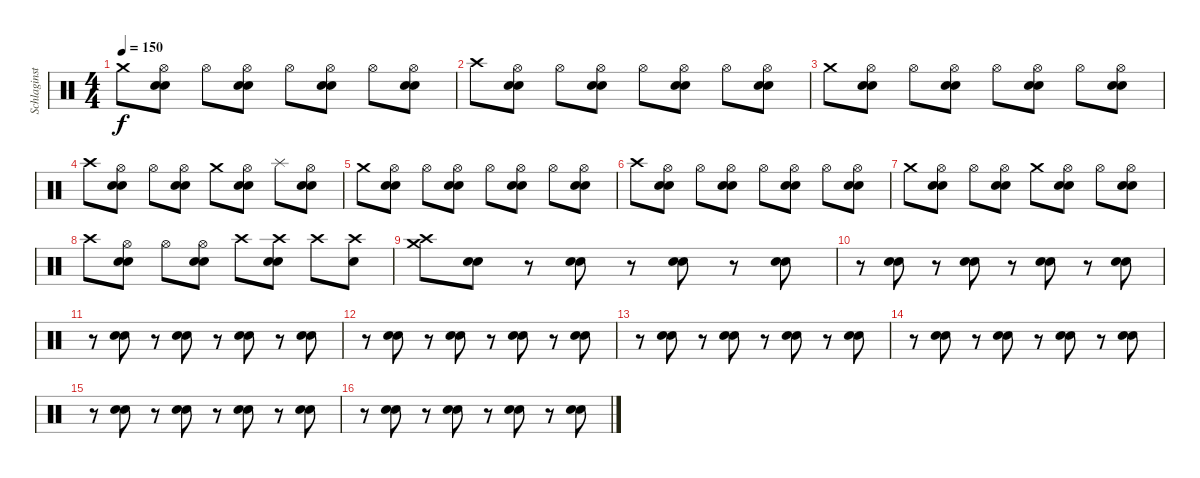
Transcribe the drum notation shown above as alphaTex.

\track ("Schlaginstrumente - Auswahl" "Schlaginst") {instrument percussion}
\staff {score}
\articulation defaults
\ts (4 4)
\tempo 150
\clef neutral
\ks c "Crash medium (hit)".8{dy f}
("Hi-Hat (open)" "Electric Snare (hit)" "Electric Snare (hit)").8 "Hi-Hat (open)".8 ("Hi-Hat (open)" "Electric Snare (hit)" "Electric Snare (hit)").8 "Hi-Hat (open)".8 ("Hi-Hat (open)" "Electric Snare (hit)" "Electric Snare (hit)").8 "Hi-Hat (open)".8 ("Hi-Hat (open)" "Electric Snare (hit)" "Electric Snare (hit)").8 |
"Crash high (hit)".8 ("Hi-Hat (open)" "Electric Snare (hit)" "Electric Snare (hit)").8 "Hi-Hat (open)".8 ("Hi-Hat (open)" "Electric Snare (hit)" "Electric Snare (hit)").8 "Hi-Hat (open)".8 ("Hi-Hat (open)" "Electric Snare (hit)" "Electric Snare (hit)").8 "Hi-Hat (open)".8 ("Hi-Hat (open)" "Electric Snare (hit)" "Electric Snare (hit)").8 |
"Crash medium (hit)".8 ("Hi-Hat (open)" "Electric Snare (hit)" "Electric Snare (hit)").8 "Hi-Hat (open)".8 ("Hi-Hat (open)" "Electric Snare (hit)" "Electric Snare (hit)").8 "Hi-Hat (open)".8 ("Hi-Hat (open)" "Electric Snare (hit)" "Electric Snare (hit)").8 "Hi-Hat (open)".8 ("Hi-Hat (open)" "Electric Snare (hit)" "Electric Snare (hit)").8 |
"Crash high (hit)".8 ("Hi-Hat (open)" "Electric Snare (hit)" "Electric Snare (hit)").8 "Hi-Hat (open)".8 ("Hi-Hat (open)" "Electric Snare (hit)" "Electric Snare (hit)").8 "Crash medium (hit)".8 ("Hi-Hat (open)" "Electric Snare (hit)" "Electric Snare (hit)").8 "Splash (hit)".8 ("Hi-Hat (open)" "Electric Snare (hit)" "Electric Snare (hit)").8 |
"Crash medium (hit)".8 ("Hi-Hat (open)" "Electric Snare (hit)" "Electric Snare (hit)").8 "Hi-Hat (open)".8 ("Hi-Hat (open)" "Electric Snare (hit)" "Electric Snare (hit)").8 "Hi-Hat (open)".8 ("Hi-Hat (open)" "Electric Snare (hit)" "Electric Snare (hit)").8 "Hi-Hat (open)".8 ("Hi-Hat (open)" "Electric Snare (hit)" "Electric Snare (hit)").8 |
"Crash high (hit)".8 ("Hi-Hat (open)" "Electric Snare (hit)" "Electric Snare (hit)").8 "Hi-Hat (open)".8 ("Hi-Hat (open)" "Electric Snare (hit)" "Electric Snare (hit)").8 "Hi-Hat (open)".8 ("Hi-Hat (open)" "Electric Snare (hit)" "Electric Snare (hit)").8 "Hi-Hat (open)".8 ("Hi-Hat (open)" "Electric Snare (hit)" "Electric Snare (hit)").8 |
"Crash medium (hit)".8 ("Hi-Hat (open)" "Electric Snare (hit)" "Electric Snare (hit)").8 "Hi-Hat (open)".8 ("Hi-Hat (open)" "Electric Snare (hit)" "Electric Snare (hit)").8 "Crash medium (hit)".8 ("Hi-Hat (open)" "Electric Snare (hit)" "Electric Snare (hit)").8 "Hi-Hat (open)".8 ("Hi-Hat (open)" "Electric Snare (hit)" "Electric Snare (hit)").8 |
"Crash high (hit)".8 ("Hi-Hat (open)" "Electric Snare (hit)" "Electric Snare (hit)").8 "Hi-Hat (open)".8 ("Hi-Hat (open)" "Electric Snare (hit)" "Electric Snare (hit)").8 "Crash high (hit)".8 ("Crash high (hit)" "Electric Snare (hit)" "Electric Snare (hit)").8 "Crash high (hit)".8 ("Crash high (hit)" "Electric Snare (hit)").8 |
("Crash medium (hit)" "Crash high (hit)").8 ("Electric Snare (hit)" "Electric Snare (hit)").8 r.8 ("Electric Snare (hit)" "Electric Snare (hit)").8 r.8 ("Electric Snare (hit)" "Electric Snare (hit)").8 r.8 ("Electric Snare (hit)" "Electric Snare (hit)").8 |
r.8 ("Electric Snare (hit)" "Electric Snare (hit)").8 r.8 ("Electric Snare (hit)" "Electric Snare (hit)").8 r.8 ("Electric Snare (hit)" "Electric Snare (hit)").8 r.8 ("Electric Snare (hit)" "Electric Snare (hit)").8 |
r.8 ("Electric Snare (hit)" "Electric Snare (hit)").8 r.8 ("Electric Snare (hit)" "Electric Snare (hit)").8 r.8 ("Electric Snare (hit)" "Electric Snare (hit)").8 r.8 ("Electric Snare (hit)" "Electric Snare (hit)").8 |
r.8 ("Electric Snare (hit)" "Electric Snare (hit)").8 r.8 ("Electric Snare (hit)" "Electric Snare (hit)").8 r.8 ("Electric Snare (hit)" "Electric Snare (hit)").8 r.8 ("Electric Snare (hit)" "Electric Snare (hit)").8 |
r.8 ("Electric Snare (hit)" "Electric Snare (hit)").8 r.8 ("Electric Snare (hit)" "Electric Snare (hit)").8 r.8 ("Electric Snare (hit)" "Electric Snare (hit)").8 r.8 ("Electric Snare (hit)" "Electric Snare (hit)").8 |
r.8 ("Electric Snare (hit)" "Electric Snare (hit)").8 r.8 ("Electric Snare (hit)" "Electric Snare (hit)").8 r.8 ("Electric Snare (hit)" "Electric Snare (hit)").8 r.8 ("Electric Snare (hit)" "Electric Snare (hit)").8 |
r.8 ("Electric Snare (hit)" "Electric Snare (hit)").8 r.8 ("Electric Snare (hit)" "Electric Snare (hit)").8 r.8 ("Electric Snare (hit)" "Electric Snare (hit)").8 r.8 ("Electric Snare (hit)" "Electric Snare (hit)").8 |
r.8 ("Electric Snare (hit)" "Electric Snare (hit)").8 r.8 ("Electric Snare (hit)" "Electric Snare (hit)").8 r.8 ("Electric Snare (hit)" "Electric Snare (hit)").8 r.8 ("Electric Snare (hit)" "Electric Snare (hit)").8
